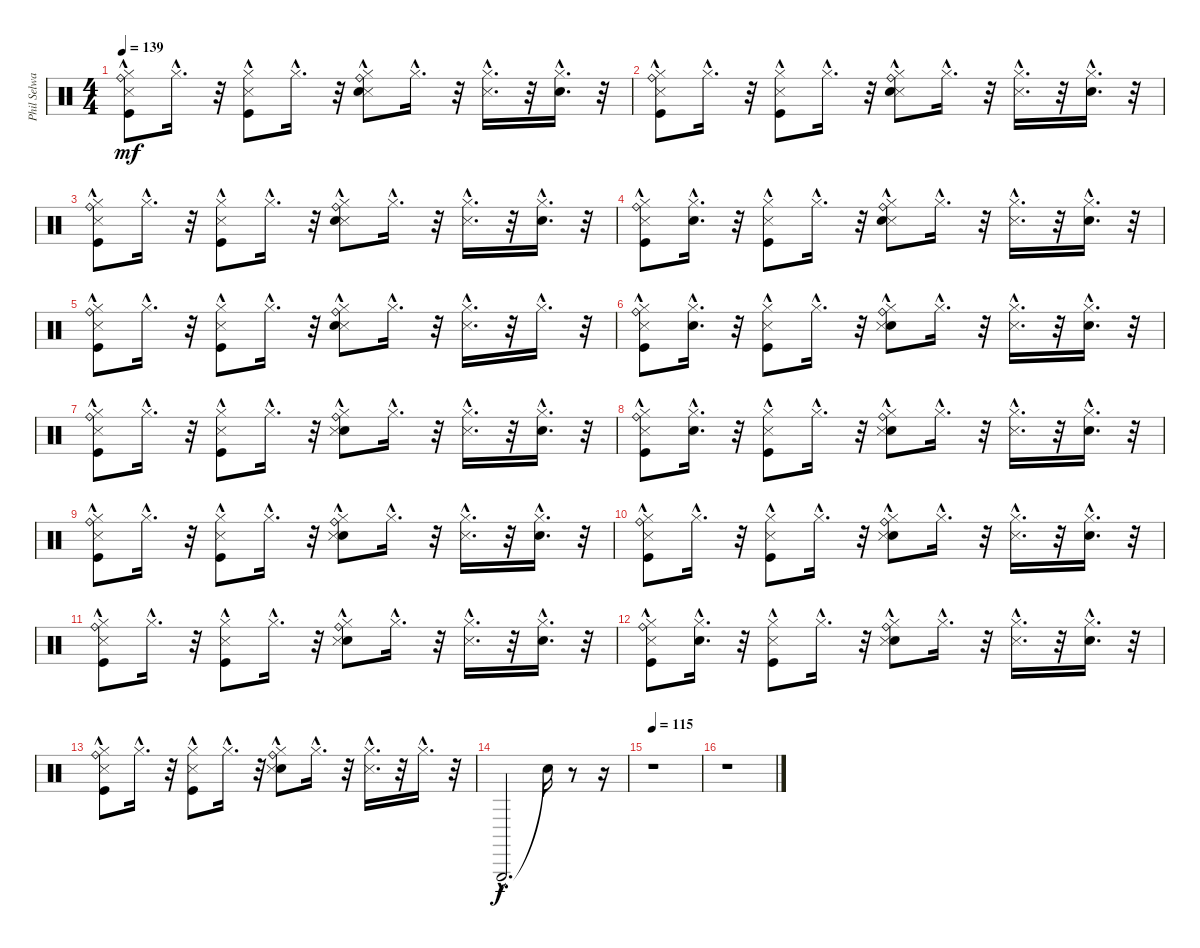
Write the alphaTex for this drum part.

\track ("Phil Selway - Drums" "Phil Selwa") {instrument percussion}
\staff {score}
\articulation defaults
\ts (4 4)
\tempo 139
\clef neutral
\ks c
("Hi-Hat (closed)"{hac} "Snare (side stick) 3"{hac} "Kick (hit)"{hac} "Ride (bell)"{hac}).8{dy mf} "Hi-Hat (closed)"{hac}.16{d} r.32 ("Hi-Hat (closed)"{hac} "Snare (side stick) 3"{hac} "Kick (hit)"{hac}).8 "Hi-Hat (closed)"{hac}.16{d} r.32 ("Hi-Hat (closed)"{hac} "Snare (side stick) 3"{hac} "Snare (hit) 2"{hac} "Ride (bell)"{hac}).8 "Hi-Hat (closed)"{hac}.16{d} r.32 ("Hi-Hat (closed)"{hac} "Snare (side stick) 3"{hac}).16{d} r.32 ("Hi-Hat (closed)"{hac} "Snare (hit) 2"{hac}).16{d} r.32 |
("Snare (side stick) 3"{hac} "Hi-Hat (closed)"{hac} "Kick (hit)"{hac} "Ride (bell)"{hac}).8 "Hi-Hat (closed)"{hac}.16{d} r.32 ("Snare (side stick) 3"{hac} "Hi-Hat (closed)"{hac} "Kick (hit)"{hac}).8 "Hi-Hat (closed)"{hac}.16{d} r.32 ("Snare (side stick) 3"{hac} "Hi-Hat (closed)"{hac} "Snare (hit) 2"{hac} "Ride (bell)"{hac}).8 "Hi-Hat (closed)"{hac}.16{d} r.32 ("Snare (side stick) 3"{hac} "Hi-Hat (closed)"{hac}).16{d} r.32 ("Hi-Hat (closed)"{hac} "Snare (hit) 2"{hac}).16{d} r.32 |
("Hi-Hat (closed)"{hac} "Snare (side stick) 3"{hac} "Kick (hit)"{hac} "Ride (bell)"{hac}).8 "Hi-Hat (closed)"{hac}.16{d} r.32 ("Hi-Hat (closed)"{hac} "Snare (side stick) 3"{hac} "Kick (hit)"{hac}).8 "Hi-Hat (closed)"{hac}.16{d} r.32 ("Hi-Hat (closed)"{hac} "Snare (side stick) 3"{hac} "Snare (hit) 2"{hac} "Ride (bell)"{hac}).8 "Hi-Hat (closed)"{hac}.16{d} r.32 ("Hi-Hat (closed)"{hac} "Snare (side stick) 3"{hac}).16{d} r.32 ("Hi-Hat (closed)"{hac} "Snare (hit) 2"{hac}).16{d} r.32 |
("Hi-Hat (closed)"{hac} "Snare (side stick) 3"{hac} "Kick (hit)"{hac} "Ride (bell)"{hac}).8 ("Hi-Hat (closed)"{hac} "Snare (hit) 2"{hac}).16{d} r.32 ("Hi-Hat (closed)"{hac} "Snare (side stick) 3"{hac} "Kick (hit)"{hac}).8 "Hi-Hat (closed)"{hac}.16{d} r.32 ("Hi-Hat (closed)"{hac} "Snare (side stick) 3"{hac} "Snare (hit) 2"{hac} "Ride (bell)"{hac}).8 "Hi-Hat (closed)"{hac}.16{d} r.32 ("Hi-Hat (closed)"{hac} "Snare (side stick) 3"{hac}).16{d} r.32 ("Hi-Hat (closed)"{hac} "Snare (hit) 2"{hac}).16{d} r.32 |
("Hi-Hat (closed)"{hac} "Snare (side stick) 3"{hac} "Kick (hit)"{hac} "Ride (bell)"{hac}).8 "Hi-Hat (closed)"{hac}.16{d} r.32 ("Hi-Hat (closed)"{hac} "Snare (side stick) 3"{hac} "Kick (hit)"{hac}).8 "Hi-Hat (closed)"{hac}.16{d} r.32 ("Hi-Hat (closed)"{hac} "Snare (side stick) 3"{hac} "Snare (hit) 2"{hac} "Ride (bell)"{hac}).8 "Hi-Hat (closed)"{hac}.16{d} r.32 ("Hi-Hat (closed)"{hac} "Snare (side stick) 3"{hac}).16{d} r.32 "Hi-Hat (closed)"{hac}.16{d} r.32 |
("Ride (bell)"{hac} "Kick (hit)"{hac} "Snare (side stick) 3"{hac} "Hi-Hat (closed)"{hac}).8 ("Snare (hit) 2"{hac} "Hi-Hat (closed)"{hac}).16{d} r.32 ("Kick (hit)"{hac} "Snare (side stick) 3"{hac} "Hi-Hat (closed)"{hac}).8 "Hi-Hat (closed)"{hac}.16{d} r.32 ("Ride (bell)"{hac} "Snare (hit) 2"{hac} "Snare (side stick) 3"{hac} "Hi-Hat (closed)"{hac}).8 "Hi-Hat (closed)"{hac}.16{d} r.32 ("Snare (side stick) 3"{hac} "Hi-Hat (closed)"{hac}).16{d} r.32 ("Snare (hit) 2"{hac} "Hi-Hat (closed)"{hac}).16{d} r.32 |
("Ride (bell)"{hac} "Kick (hit)"{hac} "Snare (side stick) 3"{hac} "Hi-Hat (closed)"{hac}).8 "Hi-Hat (closed)"{hac}.16{d} r.32 ("Kick (hit)"{hac} "Snare (side stick) 3"{hac} "Hi-Hat (closed)"{hac}).8 "Hi-Hat (closed)"{hac}.16{d} r.32 ("Ride (bell)"{hac} "Snare (hit) 2"{hac} "Snare (side stick) 3"{hac} "Hi-Hat (closed)"{hac}).8 "Hi-Hat (closed)"{hac}.16{d} r.32 ("Snare (side stick) 3"{hac} "Hi-Hat (closed)"{hac}).16{d} r.32 ("Snare (hit) 2"{hac} "Hi-Hat (closed)"{hac}).16{d} r.32 |
("Ride (bell)"{hac} "Kick (hit)"{hac} "Snare (side stick) 3"{hac} "Hi-Hat (closed)"{hac}).8 ("Snare (hit) 2"{hac} "Hi-Hat (closed)"{hac}).16{d} r.32 ("Kick (hit)"{hac} "Snare (side stick) 3"{hac} "Hi-Hat (closed)"{hac}).8 "Hi-Hat (closed)"{hac}.16{d} r.32 ("Ride (bell)"{hac} "Snare (hit) 2"{hac} "Snare (side stick) 3"{hac} "Hi-Hat (closed)"{hac}).8 "Hi-Hat (closed)"{hac}.16{d} r.32 ("Snare (side stick) 3"{hac} "Hi-Hat (closed)"{hac}).16{d} r.32 ("Snare (hit) 2"{hac} "Hi-Hat (closed)"{hac}).16{d} r.32 |
("Ride (bell)"{hac} "Kick (hit)"{hac} "Snare (side stick) 3"{hac} "Hi-Hat (closed)"{hac}).8 "Hi-Hat (closed)"{hac}.16{d} r.32 ("Kick (hit)"{hac} "Snare (side stick) 3"{hac} "Hi-Hat (closed)"{hac}).8 "Hi-Hat (closed)"{hac}.16{d} r.32 ("Ride (bell)"{hac} "Snare (hit) 2"{hac} "Snare (side stick) 3"{hac} "Hi-Hat (closed)"{hac}).8 "Hi-Hat (closed)"{hac}.16{d} r.32 ("Snare (side stick) 3"{hac} "Hi-Hat (closed)"{hac}).16{d} r.32 ("Snare (hit) 2"{hac} "Hi-Hat (closed)"{hac}).16{d} r.32 |
("Ride (bell)"{hac} "Kick (hit)"{hac} "Hi-Hat (closed)"{hac} "Snare (side stick) 3"{hac}).8 "Hi-Hat (closed)"{hac}.16{d} r.32 ("Kick (hit)"{hac} "Hi-Hat (closed)"{hac} "Snare (side stick) 3"{hac}).8 "Hi-Hat (closed)"{hac}.16{d} r.32 ("Ride (bell)"{hac} "Snare (hit) 2"{hac} "Hi-Hat (closed)"{hac} "Snare (side stick) 3"{hac}).8 "Hi-Hat (closed)"{hac}.16{d} r.32 ("Hi-Hat (closed)"{hac} "Snare (side stick) 3"{hac}).16{d} r.32 ("Snare (hit) 2"{hac} "Hi-Hat (closed)"{hac}).16{d} r.32 |
("Ride (bell)"{hac} "Kick (hit)"{hac} "Snare (side stick) 3"{hac} "Hi-Hat (closed)"{hac}).8 "Hi-Hat (closed)"{hac}.16{d} r.32 ("Kick (hit)"{hac} "Snare (side stick) 3"{hac} "Hi-Hat (closed)"{hac}).8 "Hi-Hat (closed)"{hac}.16{d} r.32 ("Ride (bell)"{hac} "Snare (hit) 2"{hac} "Snare (side stick) 3"{hac} "Hi-Hat (closed)"{hac}).8 "Hi-Hat (closed)"{hac}.16{d} r.32 ("Snare (side stick) 3"{hac} "Hi-Hat (closed)"{hac}).16{d} r.32 ("Snare (hit) 2"{hac} "Hi-Hat (closed)"{hac}).16{d} r.32 |
("Ride (bell)"{hac} "Kick (hit)"{hac} "Snare (side stick) 3"{hac} "Hi-Hat (closed)"{hac}).8 ("Snare (hit) 2"{hac} "Hi-Hat (closed)"{hac}).16{d} r.32 ("Kick (hit)"{hac} "Snare (side stick) 3"{hac} "Hi-Hat (closed)"{hac}).8 "Hi-Hat (closed)"{hac}.16{d} r.32 ("Ride (bell)"{hac} "Snare (hit) 2"{hac} "Snare (side stick) 3"{hac} "Hi-Hat (closed)"{hac}).8 "Hi-Hat (closed)"{hac}.16{d} r.32 ("Snare (side stick) 3"{hac} "Hi-Hat (closed)"{hac}).16{d} r.32 ("Snare (hit) 2"{hac} "Hi-Hat (closed)"{hac}).16{d} r.32 |
("Ride (bell)"{hac} "Kick (hit)"{hac} "Snare (side stick) 3"{hac} "Hi-Hat (closed)"{hac}).8 "Hi-Hat (closed)"{hac}.16{d} r.32 ("Kick (hit)"{hac} "Snare (side stick) 3"{hac} "Hi-Hat (closed)"{hac}).8 "Hi-Hat (closed)"{hac}.16{d} r.32 ("Ride (bell)"{hac} "Snare (hit) 2"{hac} "Snare (side stick) 3"{hac} "Hi-Hat (closed)"{hac}).8 "Hi-Hat (closed)"{hac}.16{d} r.32 ("Snare (side stick) 3"{hac} "Hi-Hat (closed)"{hac}).16{d} r.32 "Hi-Hat (closed)"{hac}.16{d} r.32 |
"Triangle (hit)"{hac}.2{d dy f} "Snare (hit)"{t}.16 r.8 r.16 |
\tempo 115
r.1 |
r.1
